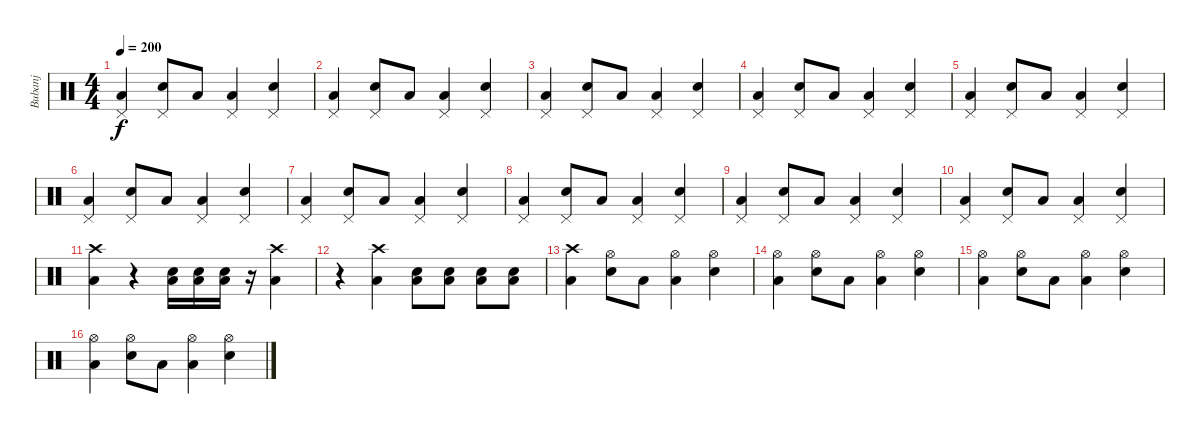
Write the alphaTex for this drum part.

\track ("Bubanj" "Bubanj") {instrument percussion}
\staff {score}
\articulation defaults
\ts (4 4)
\tempo 200
\clef neutral
\ks c
("Pedal Hi-Hat (hit)" "Low Tom (hit)").4{dy f} ("Pedal Hi-Hat (hit)" "Snare (hit) 2").8 "Low Tom (hit)".8 ("Pedal Hi-Hat (hit)" "Low Tom (hit)").4 ("Pedal Hi-Hat (hit)" "Snare (hit) 2").4 |
("Pedal Hi-Hat (hit)" "Low Tom (hit)").4 ("Pedal Hi-Hat (hit)" "Snare (hit) 2").8 "Low Tom (hit)".8 ("Pedal Hi-Hat (hit)" "Low Tom (hit)").4 ("Pedal Hi-Hat (hit)" "Snare (hit) 2").4 |
("Pedal Hi-Hat (hit)" "Low Tom (hit)").4 ("Pedal Hi-Hat (hit)" "Snare (hit) 2").8 "Low Tom (hit)".8 ("Pedal Hi-Hat (hit)" "Low Tom (hit)").4 ("Pedal Hi-Hat (hit)" "Snare (hit) 2").4 |
("Pedal Hi-Hat (hit)" "Low Tom (hit)").4 ("Pedal Hi-Hat (hit)" "Snare (hit) 2").8 "Low Tom (hit)".8 ("Pedal Hi-Hat (hit)" "Low Tom (hit)").4 ("Pedal Hi-Hat (hit)" "Snare (hit) 2").4 |
("Pedal Hi-Hat (hit)" "Low Tom (hit)").4 ("Pedal Hi-Hat (hit)" "Snare (hit) 2").8 "Low Tom (hit)".8 ("Pedal Hi-Hat (hit)" "Low Tom (hit)").4 ("Pedal Hi-Hat (hit)" "Snare (hit) 2").4 |
("Pedal Hi-Hat (hit)" "Low Tom (hit)").4 ("Pedal Hi-Hat (hit)" "Snare (hit) 2").8 "Low Tom (hit)".8 ("Pedal Hi-Hat (hit)" "Low Tom (hit)").4 ("Pedal Hi-Hat (hit)" "Snare (hit) 2").4 |
("Pedal Hi-Hat (hit)" "Low Tom (hit)").4 ("Pedal Hi-Hat (hit)" "Snare (hit) 2").8 "Low Tom (hit)".8 ("Pedal Hi-Hat (hit)" "Low Tom (hit)").4 ("Pedal Hi-Hat (hit)" "Snare (hit) 2").4 |
("Pedal Hi-Hat (hit)" "Low Tom (hit)").4 ("Pedal Hi-Hat (hit)" "Snare (hit) 2").8 "Low Tom (hit)".8 ("Pedal Hi-Hat (hit)" "Low Tom (hit)").4 ("Pedal Hi-Hat (hit)" "Snare (hit) 2").4 |
("Pedal Hi-Hat (hit)" "Low Tom (hit)").4 ("Pedal Hi-Hat (hit)" "Snare (hit) 2").8 "Low Tom (hit)".8 ("Pedal Hi-Hat (hit)" "Low Tom (hit)").4 ("Pedal Hi-Hat (hit)" "Snare (hit) 2").4 |
("Pedal Hi-Hat (hit)" "Low Tom (hit)").4 ("Pedal Hi-Hat (hit)" "Snare (hit) 2").8 "Low Tom (hit)".8 ("Pedal Hi-Hat (hit)" "Low Tom (hit)").4 ("Pedal Hi-Hat (hit)" "Snare (hit) 2").4 |
("Crash high (hit)" "Low Tom (hit)").4 r.4 ("Electric Snare (hit)" "Low Tom (hit)").16 ("Electric Snare (hit)" "Low Tom (hit)").16 ("Electric Snare (hit)" "Low Tom (hit)").16 r.16 ("Crash high (hit)" "Low Tom (hit)").4 |
r.4 ("Crash high (hit)" "Low Tom (hit)").4 ("Snare (hit) 2" "Low Tom (hit)").8 ("Snare (hit) 2" "Low Tom (hit)").8 ("Snare (hit) 2" "Low Tom (hit)").8 ("Snare (hit) 2" "Low Tom (hit)").8 |
("Crash high (hit)" "Low Tom (hit)").4 ("Hi-Hat (open)" "Snare (hit) 2").8 "Low Tom (hit)".8 ("Hi-Hat (open)" "Low Tom (hit)").4 ("Hi-Hat (open)" "Snare (hit) 2").4 |
("Hi-Hat (open)" "Low Tom (hit)").4 ("Hi-Hat (open)" "Snare (hit) 2").8 "Low Tom (hit)".8 ("Hi-Hat (open)" "Low Tom (hit)").4 ("Hi-Hat (open)" "Snare (hit) 2").4 |
("Hi-Hat (open)" "Low Tom (hit)").4 ("Hi-Hat (open)" "Snare (hit) 2").8 "Low Tom (hit)".8 ("Hi-Hat (open)" "Low Tom (hit)").4 ("Hi-Hat (open)" "Snare (hit) 2").4 |
("Hi-Hat (open)" "Low Tom (hit)").4 ("Hi-Hat (open)" "Snare (hit) 2").8 "Low Tom (hit)".8 ("Hi-Hat (open)" "Low Tom (hit)").4 ("Hi-Hat (open)" "Snare (hit) 2").4
